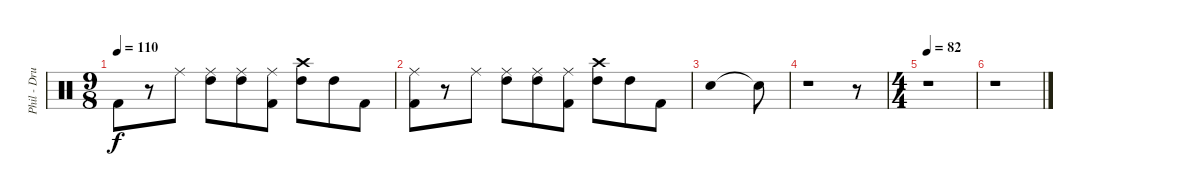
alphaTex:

\track ("Phil - Drums" "Phil - Dru") {instrument percussion}
\staff {score}
\articulation defaults
\ts (9 8)
\tempo 110
\clef neutral
\ks c "Kick (hit) 2".8{dy f}
r.8 "Ride (middle)".8 ("Ride (middle)" "High Tom (hit)").8 ("Ride (middle)" "High Tom (hit)").8 ("Ride (middle)" "Kick (hit) 2").8 ("Crash high (hit)" "High Tom (hit)").8 "High Tom (hit)".8 "Kick (hit) 2".8 |
("Ride (middle)" "Kick (hit) 2").8 r.8 "Ride (middle)".8 ("Ride (middle)" "High Tom (hit)").8 ("Ride (middle)" "High Tom (hit)").8 ("Ride (middle)" "Kick (hit) 2").8 ("Crash high (hit)" "High Tom (hit)").8 "High Tom (hit)".8 "Kick (hit) 2".8 |
"Metronome (bell)".1{volume 16} "Snare (hit)"{t}.8 |
r.1 r.8 |
\ts (4 4)
\tempo 82
r.1 |
r.1
